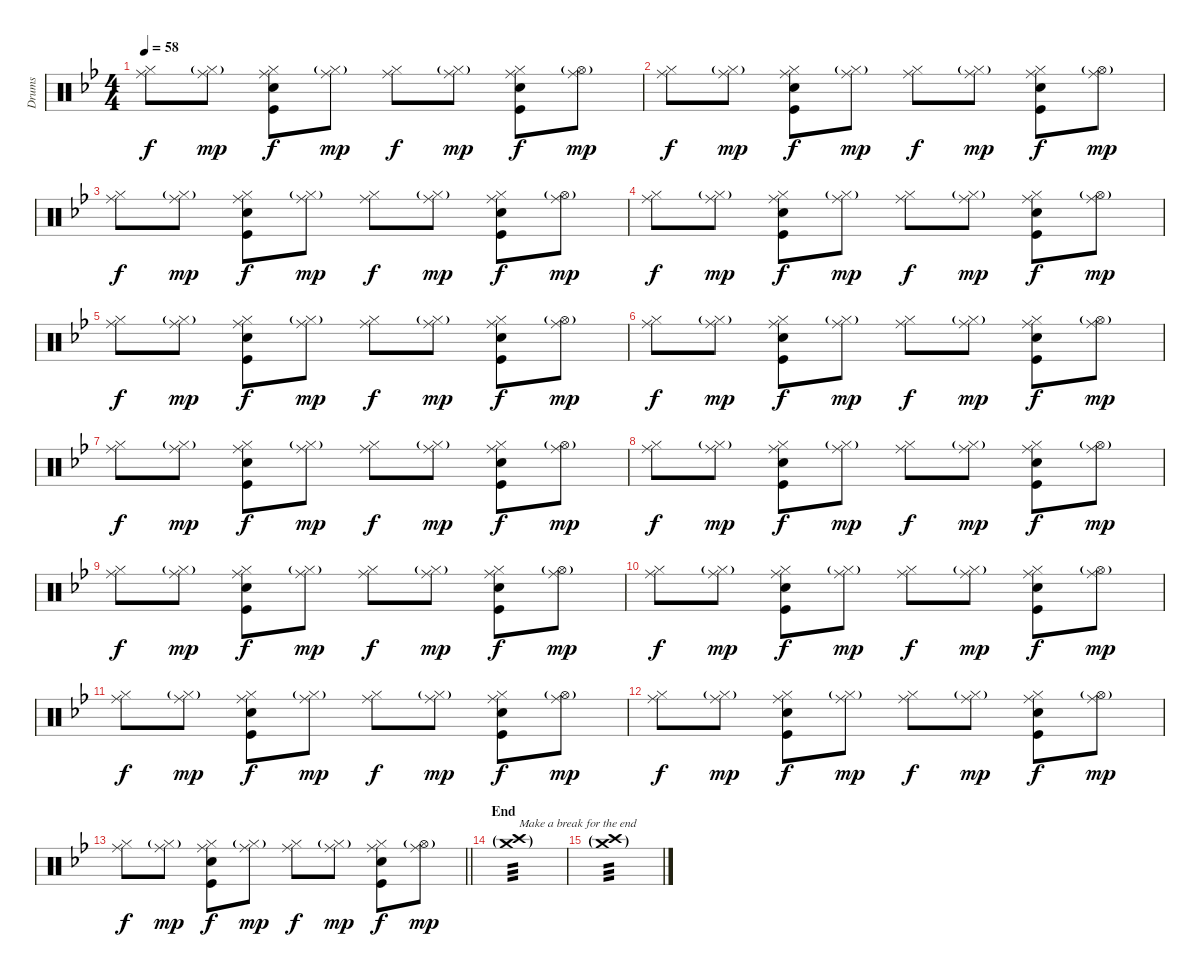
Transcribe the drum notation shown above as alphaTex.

\track ("Drums" "Drums") {instrument percussion}
\staff {score}
\articulation defaults
\ts (4 4)
\tempo 58
\clef neutral
\ks bb
("Ride (middle)" "Hi-Hat (closed)").8{dy f} ("Ride (middle)" "Hi-Hat (closed)"{g}).8{dy mp} ("Ride (middle)" "Hi-Hat (closed)" "Kick (hit)" "Snare (hit) 2").8{dy f} ("Ride (middle)" "Hi-Hat (closed)"{g}).8{dy mp} ("Ride (middle)" "Hi-Hat (closed)").8{dy f} ("Ride (middle)" "Hi-Hat (closed)"{g}).8{dy mp} ("Ride (middle)" "Hi-Hat (closed)" "Kick (hit)" "Snare (hit) 2").8{dy f} ("Ride (middle)" "Hi-Hat (open)"{g}).8{dy mp} |
("Ride (middle)" "Hi-Hat (closed)").8{dy f} ("Ride (middle)" "Hi-Hat (closed)"{g}).8{dy mp} ("Ride (middle)" "Hi-Hat (closed)" "Kick (hit)" "Snare (hit) 2").8{dy f} ("Ride (middle)" "Hi-Hat (closed)"{g}).8{dy mp} ("Ride (middle)" "Hi-Hat (closed)").8{dy f} ("Ride (middle)" "Hi-Hat (closed)"{g}).8{dy mp} ("Ride (middle)" "Hi-Hat (closed)" "Kick (hit)" "Snare (hit) 2").8{dy f} ("Ride (middle)" "Hi-Hat (open)"{g}).8{dy mp} |
("Ride (middle)" "Hi-Hat (closed)").8{dy f} ("Ride (middle)" "Hi-Hat (closed)"{g}).8{dy mp} ("Ride (middle)" "Hi-Hat (closed)" "Kick (hit)" "Snare (hit) 2").8{dy f} ("Ride (middle)" "Hi-Hat (closed)"{g}).8{dy mp} ("Ride (middle)" "Hi-Hat (closed)").8{dy f} ("Ride (middle)" "Hi-Hat (closed)"{g}).8{dy mp} ("Ride (middle)" "Hi-Hat (closed)" "Kick (hit)" "Snare (hit) 2").8{dy f} ("Ride (middle)" "Hi-Hat (open)"{g}).8{dy mp} |
("Ride (middle)" "Hi-Hat (closed)").8{dy f} ("Ride (middle)" "Hi-Hat (closed)"{g}).8{dy mp} ("Ride (middle)" "Hi-Hat (closed)" "Kick (hit)" "Snare (hit) 2").8{dy f} ("Ride (middle)" "Hi-Hat (closed)"{g}).8{dy mp} ("Ride (middle)" "Hi-Hat (closed)").8{dy f} ("Ride (middle)" "Hi-Hat (closed)"{g}).8{dy mp} ("Ride (middle)" "Hi-Hat (closed)" "Kick (hit)" "Snare (hit) 2").8{dy f} ("Ride (middle)" "Hi-Hat (open)"{g}).8{dy mp} |
("Ride (middle)" "Hi-Hat (closed)").8{dy f} ("Ride (middle)" "Hi-Hat (closed)"{g}).8{dy mp} ("Ride (middle)" "Hi-Hat (closed)" "Kick (hit)" "Snare (hit) 2").8{dy f} ("Ride (middle)" "Hi-Hat (closed)"{g}).8{dy mp} ("Ride (middle)" "Hi-Hat (closed)").8{dy f} ("Ride (middle)" "Hi-Hat (closed)"{g}).8{dy mp} ("Ride (middle)" "Hi-Hat (closed)" "Kick (hit)" "Snare (hit) 2").8{dy f} ("Ride (middle)" "Hi-Hat (open)"{g}).8{dy mp} |
("Ride (middle)" "Hi-Hat (closed)").8{dy f} ("Ride (middle)" "Hi-Hat (closed)"{g}).8{dy mp} ("Ride (middle)" "Hi-Hat (closed)" "Kick (hit)" "Snare (hit) 2").8{dy f} ("Ride (middle)" "Hi-Hat (closed)"{g}).8{dy mp} ("Ride (middle)" "Hi-Hat (closed)").8{dy f} ("Ride (middle)" "Hi-Hat (closed)"{g}).8{dy mp} ("Ride (middle)" "Hi-Hat (closed)" "Kick (hit)" "Snare (hit) 2").8{dy f} ("Ride (middle)" "Hi-Hat (open)"{g}).8{dy mp} |
("Ride (middle)" "Hi-Hat (closed)").8{dy f} ("Ride (middle)" "Hi-Hat (closed)"{g}).8{dy mp} ("Ride (middle)" "Hi-Hat (closed)" "Kick (hit)" "Snare (hit) 2").8{dy f} ("Ride (middle)" "Hi-Hat (closed)"{g}).8{dy mp} ("Ride (middle)" "Hi-Hat (closed)").8{dy f} ("Ride (middle)" "Hi-Hat (closed)"{g}).8{dy mp} ("Ride (middle)" "Hi-Hat (closed)" "Kick (hit)" "Snare (hit) 2").8{dy f} ("Ride (middle)" "Hi-Hat (open)"{g}).8{dy mp} |
("Ride (middle)" "Hi-Hat (closed)").8{dy f} ("Ride (middle)" "Hi-Hat (closed)"{g}).8{dy mp} ("Ride (middle)" "Hi-Hat (closed)" "Kick (hit)" "Snare (hit) 2").8{dy f} ("Ride (middle)" "Hi-Hat (closed)"{g}).8{dy mp} ("Ride (middle)" "Hi-Hat (closed)").8{dy f} ("Ride (middle)" "Hi-Hat (closed)"{g}).8{dy mp} ("Ride (middle)" "Hi-Hat (closed)" "Kick (hit)" "Snare (hit) 2").8{dy f} ("Ride (middle)" "Hi-Hat (open)"{g}).8{dy mp} |
("Ride (middle)" "Hi-Hat (closed)").8{dy f} ("Ride (middle)" "Hi-Hat (closed)"{g}).8{dy mp} ("Ride (middle)" "Hi-Hat (closed)" "Kick (hit)" "Snare (hit) 2").8{dy f} ("Ride (middle)" "Hi-Hat (closed)"{g}).8{dy mp} ("Ride (middle)" "Hi-Hat (closed)").8{dy f} ("Ride (middle)" "Hi-Hat (closed)"{g}).8{dy mp} ("Ride (middle)" "Hi-Hat (closed)" "Kick (hit)" "Snare (hit) 2").8{dy f} ("Ride (middle)" "Hi-Hat (open)"{g}).8{dy mp} |
("Ride (middle)" "Hi-Hat (closed)").8{dy f} ("Ride (middle)" "Hi-Hat (closed)"{g}).8{dy mp} ("Ride (middle)" "Hi-Hat (closed)" "Kick (hit)" "Snare (hit) 2").8{dy f} ("Ride (middle)" "Hi-Hat (closed)"{g}).8{dy mp} ("Ride (middle)" "Hi-Hat (closed)").8{dy f} ("Ride (middle)" "Hi-Hat (closed)"{g}).8{dy mp} ("Ride (middle)" "Hi-Hat (closed)" "Kick (hit)" "Snare (hit) 2").8{dy f} ("Ride (middle)" "Hi-Hat (open)"{g}).8{dy mp} |
("Ride (middle)" "Hi-Hat (closed)").8{dy f} ("Ride (middle)" "Hi-Hat (closed)"{g}).8{dy mp} ("Ride (middle)" "Hi-Hat (closed)" "Kick (hit)" "Snare (hit) 2").8{dy f} ("Ride (middle)" "Hi-Hat (closed)"{g}).8{dy mp} ("Ride (middle)" "Hi-Hat (closed)").8{dy f} ("Ride (middle)" "Hi-Hat (closed)"{g}).8{dy mp} ("Ride (middle)" "Hi-Hat (closed)" "Kick (hit)" "Snare (hit) 2").8{dy f} ("Ride (middle)" "Hi-Hat (open)"{g}).8{dy mp} |
("Ride (middle)" "Hi-Hat (closed)").8{dy f} ("Ride (middle)" "Hi-Hat (closed)"{g}).8{dy mp} ("Ride (middle)" "Hi-Hat (closed)" "Kick (hit)" "Snare (hit) 2").8{dy f} ("Ride (middle)" "Hi-Hat (closed)"{g}).8{dy mp} ("Ride (middle)" "Hi-Hat (closed)").8{dy f} ("Ride (middle)" "Hi-Hat (closed)"{g}).8{dy mp} ("Ride (middle)" "Hi-Hat (closed)" "Kick (hit)" "Snare (hit) 2").8{dy f} ("Ride (middle)" "Hi-Hat (open)"{g}).8{dy mp} |
\barLineRight lightlight
("Ride (middle)" "Hi-Hat (closed)").8{dy f} ("Ride (middle)" "Hi-Hat (closed)"{g}).8{dy mp} ("Ride (middle)" "Hi-Hat (closed)" "Kick (hit)" "Snare (hit) 2").8{dy f} ("Ride (middle)" "Hi-Hat (closed)"{g}).8{dy mp} ("Ride (middle)" "Hi-Hat (closed)").8{dy f} ("Ride (middle)" "Hi-Hat (closed)"{g}).8{dy mp} ("Ride (middle)" "Hi-Hat (closed)" "Kick (hit)" "Snare (hit) 2").8{dy f} ("Ride (middle)" "Hi-Hat (open)"{g}).8{dy mp} |
\section ("" "End")
("Crash high (hit)"{g} "Crash medium (hit)"{g}).1{txt "Make a break for the end" tp 3} |
("Crash high (hit)"{g} "Crash medium (hit)"{g}).1{tp 3}
